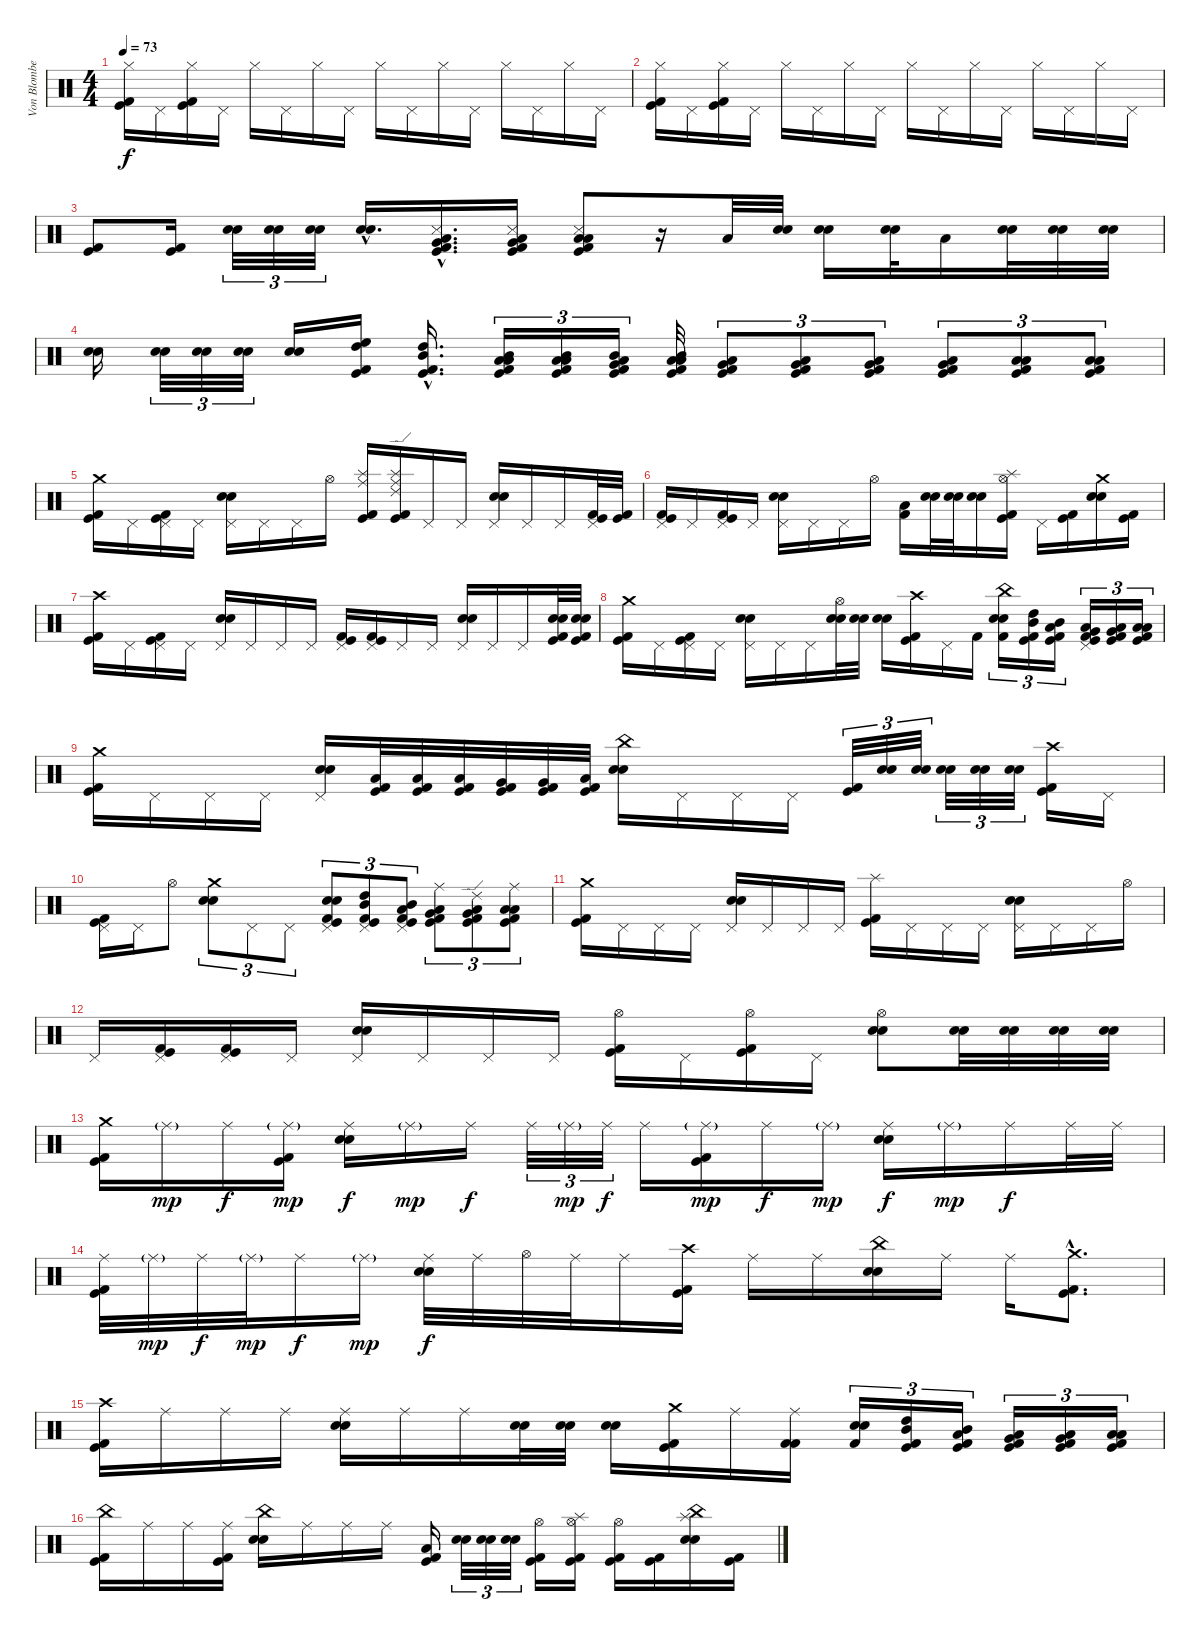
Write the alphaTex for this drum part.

\track ("Von Blomberg" "Von Blombe") {instrument percussion}
\staff {score}
\articulation defaults
\ts (4 4)
\tempo 73
\clef neutral
\ks c
("Hi-Hat (closed)" "Kick (hit)" "Kick (hit) 2").16{dy f} "Pedal Hi-Hat (hit)".16 ("Hi-Hat (closed)" "Kick (hit)" "Kick (hit) 2").16 "Pedal Hi-Hat (hit)".16 "Hi-Hat (closed)".16 "Pedal Hi-Hat (hit)".16 "Hi-Hat (closed)".16 "Pedal Hi-Hat (hit)".16 "Hi-Hat (closed)".16 "Pedal Hi-Hat (hit)".16 "Hi-Hat (closed)".16 "Pedal Hi-Hat (hit)".16 "Hi-Hat (closed)".16 "Pedal Hi-Hat (hit)".16 "Hi-Hat (closed)".16 "Pedal Hi-Hat (hit)".16 |
("Hi-Hat (closed)" "Kick (hit)" "Kick (hit) 2").16 "Pedal Hi-Hat (hit)".16 ("Hi-Hat (closed)" "Kick (hit)" "Kick (hit) 2").16 "Pedal Hi-Hat (hit)".16 "Hi-Hat (closed)".16 "Pedal Hi-Hat (hit)".16 "Hi-Hat (closed)".16 "Pedal Hi-Hat (hit)".16 "Hi-Hat (closed)".16 "Pedal Hi-Hat (hit)".16 "Hi-Hat (closed)".16 "Pedal Hi-Hat (hit)".16 "Hi-Hat (closed)".16 "Pedal Hi-Hat (hit)".16 "Hi-Hat (closed)".16 "Pedal Hi-Hat (hit)".16 |
("Kick (hit)" "Kick (hit) 2").8 ("Kick (hit)" "Kick (hit) 2").16 ("Snare (hit) 2" "Electric Snare (hit)").32{tu (3 2)} ("Snare (hit) 2" "Electric Snare (hit)").32{tu (3 2)} ("Snare (hit) 2" "Electric Snare (hit)").32{tu (3 2)} ("Snare (hit) 2"{hac} "Electric Snare (hit)"{hac}).16{d} ("Kick (hit)"{hac} "Low Tom (hit)"{hac} "Very Low Tom (hit)"{hac} "Snare (side stick) 3"{hac} "Kick (hit) 2"{hac}).16{d} ("Kick (hit)" "Very Low Tom (hit)" "Low Floor Tom (hit)" "Snare (side stick) 3" "Kick (hit) 2").16 ("Kick (hit)" "Low Floor Tom (hit)" "Low Floor Tom (hit)" "Snare (side stick) 3" "Kick (hit) 2").8 r.16 "Low Tom (hit)".32 ("Snare (hit) 2" "Electric Snare (hit)").32 ("Snare (hit) 2" "Electric Snare (hit)").16 ("Snare (hit) 2" "Electric Snare (hit)").32 "Low Tom (hit)".16 ("Electric Snare (hit)" "Snare (hit) 2").32 ("Electric Snare (hit)" "Snare (hit) 2").32 ("Electric Snare (hit)" "Snare (hit) 2").32 |
("Snare (hit) 2" "Electric Snare (hit)").16 ("Electric Snare (hit)" "Snare (hit) 2").32{tu (3 2)} ("Electric Snare (hit)" "Snare (hit) 2").32{tu (3 2)} ("Electric Snare (hit)" "Snare (hit) 2").32{tu (3 2)} ("Snare (hit) 2" "Electric Snare (hit)").16 ("High Floor Tom (hit)" "High Tom (hit)" "Kick (hit)" "Kick (hit) 2").16 ("High Tom (hit)"{hac} "Mid Tom (hit)"{hac} "Kick (hit)"{hac} "Kick (hit) 2"{hac}).16{d} ("Mid Tom (hit)" "Low Tom (hit)" "Low Tom (hit)" "Kick (hit)" "Kick (hit) 2").16{tu (3 2)} ("Mid Tom (hit)" "Low Tom (hit)" "Low Tom (hit)" "Kick (hit)" "Kick (hit) 2").16{tu (3 2)} ("Mid Tom (hit)" "Low Tom (hit)" "Very Low Tom (hit)" "Kick (hit)" "Kick (hit) 2").16{tu (3 2)} ("Mid Tom (hit)" "Low Tom (hit)" "Low Floor Tom (hit)" "Kick (hit)" "Kick (hit) 2").32 ("Low Tom (hit)" "Very Low Tom (hit)" "Kick (hit)" "Kick (hit) 2").8{tu (3 2)} ("Low Tom (hit)" "Very Low Tom (hit)" "Kick (hit)" "Kick (hit) 2").8{tu (3 2)} ("Very Low Tom (hit)" "Low Floor Tom (hit)" "Kick (hit)" "Kick (hit) 2").8{tu (3 2)} ("Very Low Tom (hit)" "Low Floor Tom (hit)" "Kick (hit)" "Kick (hit) 2").8{tu (3 2)} ("Low Floor Tom (hit)" "Low Floor Tom (hit)" "Kick (hit)" "Kick (hit) 2").8{tu (3 2)} ("Low Floor Tom (hit)" "Low Floor Tom (hit)" "Kick (hit)" "Kick (hit) 2").8{tu (3 2)} |
("Crash medium (hit)" "Kick (hit)" "Kick (hit) 2").16 "Pedal Hi-Hat (hit)".16 ("Pedal Hi-Hat (hit)" "Kick (hit) 2" "Kick (hit)").16 "Pedal Hi-Hat (hit)".16 ("Pedal Hi-Hat (hit)" "Electric Snare (hit)" "Snare (hit) 2").16 "Pedal Hi-Hat (hit)".16 "Pedal Hi-Hat (hit)".16 "Hi-Hat (open)".16 ("Splash (hit)" "Ride (middle)" "Kick (hit)" "Kick (hit) 2").16 ("Splash (hit)" "Ride (middle)" "Ride (edge) 2" "Kick (hit)" "Kick (hit) 2").16 "Pedal Hi-Hat (hit)".16 "Pedal Hi-Hat (hit)".16 ("Pedal Hi-Hat (hit)" "Electric Snare (hit)" "Snare (hit) 2").16 "Pedal Hi-Hat (hit)".16 "Pedal Hi-Hat (hit)".16 ("Pedal Hi-Hat (hit)" "Kick (hit)" "Kick (hit) 2").32 ("Kick (hit)" "Kick (hit) 2").32 |
("Pedal Hi-Hat (hit)" "Kick (hit)" "Kick (hit) 2").16 "Pedal Hi-Hat (hit)".16 ("Pedal Hi-Hat (hit)" "Kick (hit) 2" "Kick (hit)").16 "Pedal Hi-Hat (hit)".16 ("Pedal Hi-Hat (hit)" "Electric Snare (hit)" "Snare (hit) 2").16 "Pedal Hi-Hat (hit)".16 "Pedal Hi-Hat (hit)".16 "Hi-Hat (open)".16 ("Low Tom (hit)" "Kick (hit) 2").16 ("Electric Snare (hit)" "Snare (hit) 2").32 ("Electric Snare (hit)" "Snare (hit) 2").32 ("Electric Snare (hit)" "Snare (hit) 2").16 ("Splash (hit)" "Hi-Hat (open)" "Kick (hit)" "Kick (hit) 2").16 "Pedal Hi-Hat (hit)".16 ("Kick (hit)" "Kick (hit) 2").16 ("Crash medium (hit)" "Snare (hit) 2" "Electric Snare (hit)").16 ("Kick (hit)" "Kick (hit) 2").16 |
("Crash high (hit)" "Kick (hit)" "Kick (hit) 2").16 "Pedal Hi-Hat (hit)".16 ("Pedal Hi-Hat (hit)" "Kick (hit) 2" "Kick (hit)").16 "Pedal Hi-Hat (hit)".16 ("Pedal Hi-Hat (hit)" "Electric Snare (hit)" "Snare (hit) 2").16 "Pedal Hi-Hat (hit)".16 "Pedal Hi-Hat (hit)".16 "Pedal Hi-Hat (hit)".16 ("Pedal Hi-Hat (hit)" "Kick (hit)" "Kick (hit) 2").16 ("Pedal Hi-Hat (hit)" "Kick (hit)" "Kick (hit) 2").16 "Pedal Hi-Hat (hit)".16 "Pedal Hi-Hat (hit)".16 ("Pedal Hi-Hat (hit)" "Electric Snare (hit)" "Snare (hit) 2").16 "Pedal Hi-Hat (hit)".16 "Pedal Hi-Hat (hit)".16 ("Electric Snare (hit)" "Snare (hit) 2" "Kick (hit)" "Kick (hit) 2").32 ("Electric Snare (hit)" "Snare (hit) 2" "Kick (hit)" "Kick (hit) 2").32 |
("Crash medium (hit)" "Kick (hit)" "Kick (hit) 2").16 "Pedal Hi-Hat (hit)".16 ("Pedal Hi-Hat (hit)" "Kick (hit) 2" "Kick (hit)").16 "Pedal Hi-Hat (hit)".16 ("Pedal Hi-Hat (hit)" "Electric Snare (hit)" "Snare (hit) 2").16 "Pedal Hi-Hat (hit)".16 "Pedal Hi-Hat (hit)".16 ("Hi-Hat (open)" "Electric Snare (hit)" "Snare (hit) 2").32 ("Electric Snare (hit)" "Snare (hit) 2").32 ("Electric Snare (hit)" "Snare (hit) 2").16 ("Crash high (hit)" "Kick (hit)" "Kick (hit) 2").16 "Pedal Hi-Hat (hit)".16 "Kick (hit) 2".16 ("China (hit)" "Snare (hit) 2" "Electric Snare (hit)" "Kick (hit) 2").16{tu (3 2)} ("High Tom (hit)" "Mid Tom (hit)" "Kick (hit)" "Kick (hit) 2").16{tu (3 2)} ("Mid Tom (hit)" "Low Tom (hit)" "Kick (hit)" "Kick (hit) 2").16{tu (3 2)} ("Pedal Hi-Hat (hit)" "Low Tom (hit)" "Very Low Tom (hit)" "Kick (hit)" "Kick (hit) 2").16{tu (3 2)} ("Very Low Tom (hit)" "Low Floor Tom (hit)" "Kick (hit)" "Kick (hit) 2").16{tu (3 2)} ("Low Floor Tom (hit)" "Low Floor Tom (hit)" "Kick (hit)" "Kick (hit) 2").16{tu (3 2)} |
("Crash medium (hit)" "Kick (hit)" "Kick (hit) 2").16 "Pedal Hi-Hat (hit)".16 "Pedal Hi-Hat (hit)".16 "Pedal Hi-Hat (hit)".16 ("Pedal Hi-Hat (hit)" "Snare (hit) 2" "Electric Snare (hit)").16 ("Low Tom (hit)" "Kick (hit)" "Kick (hit) 2").32 ("Low Tom (hit)" "Kick (hit)" "Kick (hit) 2").32 ("Low Tom (hit)" "Kick (hit)" "Kick (hit) 2").32 ("Very Low Tom (hit)" "Kick (hit)" "Kick (hit) 2").32 ("Very Low Tom (hit)" "Kick (hit)" "Kick (hit) 2").32 ("Low Floor Tom (hit)" "Kick (hit)" "Kick (hit) 2").32 ("China (hit)" "Snare (hit) 2" "Electric Snare (hit)").16 "Pedal Hi-Hat (hit)".16 "Pedal Hi-Hat (hit)".16 "Pedal Hi-Hat (hit)".16 ("Kick (hit)" "Kick (hit) 2").32{tu (3 2)} ("Snare (hit) 2" "Electric Snare (hit)").32{tu (3 2)} ("Snare (hit) 2" "Electric Snare (hit)").32{tu (3 2)} ("Snare (hit) 2" "Electric Snare (hit)").32{tu (3 2)} ("Snare (hit) 2" "Electric Snare (hit)").32{tu (3 2)} ("Snare (hit) 2" "Electric Snare (hit)").32{tu (3 2)} ("Crash high (hit)" "Kick (hit)" "Kick (hit) 2").16 "Pedal Hi-Hat (hit)".16 |
("Pedal Hi-Hat (hit)" "Kick (hit)" "Kick (hit) 2").16 "Pedal Hi-Hat (hit)".16 "Hi-Hat (open)".8 ("Crash medium (hit)" "Snare (hit) 2" "Electric Snare (hit)").8{tu (3 2)} "Pedal Hi-Hat (hit)".8{tu (3 2)} "Pedal Hi-Hat (hit)".8{tu (3 2)} ("Pedal Hi-Hat (hit)" "Kick (hit)" "Electric Snare (hit)" "Snare (hit) 2" "Kick (hit) 2").8{tu (3 2)} ("Pedal Hi-Hat (hit)" "High Tom (hit)" "Mid Tom (hit)" "Kick (hit)" "Kick (hit) 2").8{tu (3 2)} ("Pedal Hi-Hat (hit)" "Mid Tom (hit)" "Low Tom (hit)" "Kick (hit)" "Kick (hit) 2").8{tu (3 2)} ("Ride (middle)" "Low Tom (hit)" "Very Low Tom (hit)" "Kick (hit)" "Kick (hit) 2").8{tu (3 2)} ("Ride (edge) 2" "Very Low Tom (hit)" "Low Floor Tom (hit)" "Kick (hit)" "Kick (hit) 2").8{tu (3 2)} ("Ride (middle)" "Low Floor Tom (hit)" "Low Floor Tom (hit)" "Kick (hit)" "Kick (hit) 2").8{tu (3 2)} |
("Crash medium (hit)" "Kick (hit)" "Kick (hit) 2").16 "Pedal Hi-Hat (hit)".16 "Pedal Hi-Hat (hit)".16 "Pedal Hi-Hat (hit)".16 ("Pedal Hi-Hat (hit)" "Electric Snare (hit)" "Snare (hit) 2").16 "Pedal Hi-Hat (hit)".16 "Pedal Hi-Hat (hit)".16 "Pedal Hi-Hat (hit)".16 ("Splash (hit)" "Kick (hit)" "Kick (hit) 2").16 "Pedal Hi-Hat (hit)".16 "Pedal Hi-Hat (hit)".16 "Pedal Hi-Hat (hit)".16 ("Pedal Hi-Hat (hit)" "Electric Snare (hit)" "Snare (hit) 2").16 "Pedal Hi-Hat (hit)".16 "Pedal Hi-Hat (hit)".16 "Hi-Hat (open)".16 |
"Pedal Hi-Hat (hit)".16 ("Pedal Hi-Hat (hit)" "Kick (hit)" "Kick (hit) 2").16 ("Pedal Hi-Hat (hit)" "Kick (hit)" "Kick (hit) 2").16 "Pedal Hi-Hat (hit)".16 ("Pedal Hi-Hat (hit)" "Electric Snare (hit)" "Snare (hit) 2").16 "Pedal Hi-Hat (hit)".16 "Pedal Hi-Hat (hit)".16 "Pedal Hi-Hat (hit)".16 ("Hi-Hat (open)" "Kick (hit)" "Kick (hit) 2").16 "Pedal Hi-Hat (hit)".16 ("Hi-Hat (open)" "Kick (hit)" "Kick (hit) 2").16 "Pedal Hi-Hat (hit)".16 ("Hi-Hat (open)" "Electric Snare (hit)" "Snare (hit) 2").8 ("Electric Snare (hit)" "Snare (hit) 2").32 ("Electric Snare (hit)" "Snare (hit) 2").32 ("Electric Snare (hit)" "Snare (hit) 2").32 ("Electric Snare (hit)" "Snare (hit) 2").32 |
("Crash medium (hit)" "Kick (hit)" "Kick (hit) 2").16 "Ride (middle)"{g}.16{dy mp} "Ride (middle)".16{dy f} ("Ride (middle)"{g} "Kick (hit)" "Kick (hit) 2").16{dy mp} ("Ride (middle)" "Electric Snare (hit)" "Snare (hit) 2").16{dy f} "Ride (middle)"{g}.16{dy mp} "Ride (middle)".16{dy f} "Ride (middle)".32{tu (3 2)} "Ride (middle)"{g}.32{tu (3 2) dy mp} "Ride (middle)".32{tu (3 2) dy f} "Ride (middle)".16 ("Ride (middle)"{g} "Kick (hit)" "Kick (hit) 2").16{dy mp} "Ride (middle)".16{dy f} "Ride (middle)"{g}.16{dy mp} ("Ride (middle)" "Snare (hit) 2" "Electric Snare (hit)").16{dy f} "Ride (middle)"{g}.16{dy mp} "Ride (middle)".16{dy f} "Ride (middle)".32 "Ride (middle)".32 |
("Ride (middle)" "Kick (hit)" "Kick (hit) 2").32 "Ride (middle)"{g}.32{dy mp} "Ride (middle)".32{dy f} "Ride (middle)"{g}.32{dy mp} "Ride (middle)".16{dy f} "Ride (middle)"{g}.16{dy mp} ("Ride (middle)" "Snare (hit) 2" "Electric Snare (hit)").32{dy f} "Ride (middle)".32 "Hi-Hat (open)".32 "Ride (middle)".32 "Ride (middle)".16 ("Crash high (hit)" "Kick (hit)" "Kick (hit) 2").16 "Ride (middle)".16 "Ride (middle)".16 ("China (hit)" "Electric Snare (hit)" "Snare (hit) 2").16 "Ride (middle)".16 "Ride (middle)".16 ("Crash medium (hit)"{hac} "Kick (hit)"{hac} "Kick (hit) 2"{hac}).8{d} |
("Crash high (hit)" "Kick (hit)" "Kick (hit) 2").16 "Ride (middle)".16 "Ride (middle)".16 "Ride (middle)".16 ("Ride (middle)" "Snare (hit) 2" "Electric Snare (hit)").16 "Ride (middle)".16 "Ride (middle)".16 ("Snare (hit) 2" "Electric Snare (hit)").32 ("Snare (hit) 2" "Electric Snare (hit)").32 ("Snare (hit) 2" "Electric Snare (hit)").16 ("Crash medium (hit)" "Kick (hit)" "Kick (hit) 2").16 "Ride (middle)".16 ("Ride (middle)" "Kick (hit) 2" "Kick (hit) 2").16 ("Electric Snare (hit)" "Snare (hit) 2" "Kick (hit) 2").16{tu (3 2)} ("High Tom (hit)" "Mid Tom (hit)" "Kick (hit)" "Kick (hit) 2").16{tu (3 2)} ("Mid Tom (hit)" "Low Tom (hit)" "Kick (hit)" "Kick (hit) 2").16{tu (3 2)} ("Low Tom (hit)" "Very Low Tom (hit)" "Kick (hit)" "Kick (hit) 2").16{tu (3 2)} ("Very Low Tom (hit)" "Low Floor Tom (hit)" "Kick (hit)" "Kick (hit) 2").16{tu (3 2)} ("Low Floor Tom (hit)" "Low Floor Tom (hit)" "Kick (hit)" "Kick (hit) 2").16{tu (3 2)} |
("China (hit)" "Kick (hit)" "Kick (hit) 2").16 "Ride (middle)".16 "Ride (middle)".16 ("Ride (middle)" "Kick (hit)" "Kick (hit) 2").16 ("China (hit)" "Snare (hit) 2" "Electric Snare (hit)").16 "Ride (middle)".16 "Ride (middle)".16 "Ride (middle)".16 ("Low Tom (hit)" "Kick (hit)" "Kick (hit) 2").16 ("Snare (hit) 2" "Electric Snare (hit)").32{tu (3 2)} ("Snare (hit) 2" "Electric Snare (hit)").32{tu (3 2)} ("Snare (hit) 2" "Electric Snare (hit)").32{tu (3 2)} ("Hi-Hat (open)" "Kick (hit)" "Kick (hit) 2").16 ("Splash (hit)" "Hi-Hat (open)" "Kick (hit)" "Kick (hit) 2").16 ("Hi-Hat (open)" "Kick (hit)" "Kick (hit) 2").16 ("Kick (hit)" "Kick (hit) 2").16 ("China (hit)" "Splash (hit)" "Electric Snare (hit)" "Snare (hit) 2").16 ("Kick (hit)" "Kick (hit) 2").16
